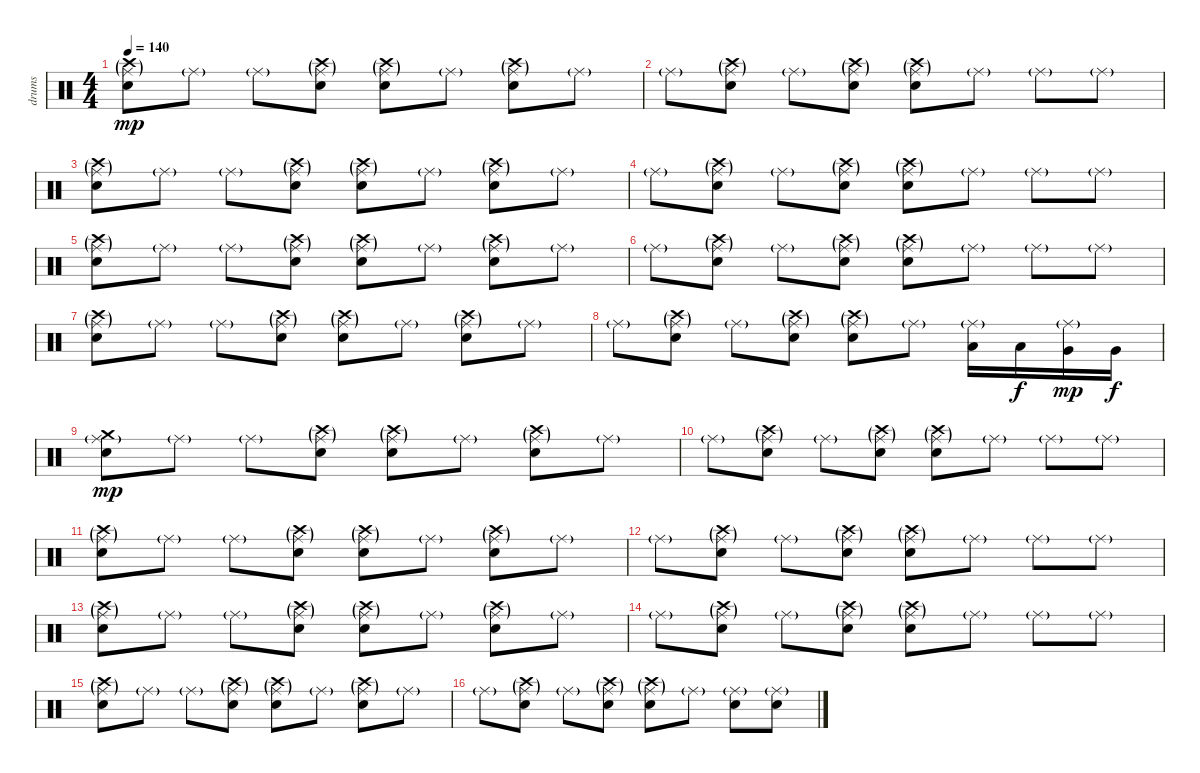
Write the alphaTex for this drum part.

\track ("drums" "drums") {instrument percussion}
\staff {score}
\articulation defaults
\ts (4 4)
\tempo 140
\clef neutral
\ks c
("Electric Snare (hit)" "Ride (middle)"{g} "Crash high (hit)"{g}).8{dy mp} "Ride (middle)"{g}.8 "Ride (middle)"{g}.8 ("Electric Snare (hit)" "Ride (middle)"{g} "Crash high (hit)"{g}).8 ("Electric Snare (hit)" "Ride (middle)"{g} "Crash high (hit)"{g}).8 "Ride (middle)"{g}.8 ("Electric Snare (hit)" "Ride (middle)"{g} "Crash high (hit)"{g}).8 "Ride (middle)"{g}.8 |
"Ride (middle)"{g}.8 ("Electric Snare (hit)" "Ride (middle)"{g} "Crash high (hit)"{g}).8 "Ride (middle)"{g}.8 ("Electric Snare (hit)" "Ride (middle)"{g} "Crash high (hit)"{g}).8 ("Electric Snare (hit)" "Ride (middle)"{g} "Crash high (hit)"{g}).8 "Ride (middle)"{g}.8 "Ride (middle)"{g}.8 "Ride (middle)"{g}.8 |
("Electric Snare (hit)" "Ride (middle)"{g} "Crash high (hit)"{g}).8 "Ride (middle)"{g}.8 "Ride (middle)"{g}.8 ("Electric Snare (hit)" "Ride (middle)"{g} "Crash high (hit)"{g}).8 ("Electric Snare (hit)" "Ride (middle)"{g} "Crash high (hit)"{g}).8 "Ride (middle)"{g}.8 ("Electric Snare (hit)" "Ride (middle)"{g} "Crash high (hit)"{g}).8 "Ride (middle)"{g}.8 |
"Ride (middle)"{g}.8 ("Electric Snare (hit)" "Ride (middle)"{g} "Crash high (hit)"{g}).8 "Ride (middle)"{g}.8 ("Electric Snare (hit)" "Ride (middle)"{g} "Crash high (hit)"{g}).8 ("Electric Snare (hit)" "Ride (middle)"{g} "Crash high (hit)"{g}).8 "Ride (middle)"{g}.8 "Ride (middle)"{g}.8 "Ride (middle)"{g}.8 |
("Electric Snare (hit)" "Ride (middle)"{g} "Crash high (hit)"{g}).8 "Ride (middle)"{g}.8 "Ride (middle)"{g}.8 ("Electric Snare (hit)" "Ride (middle)"{g} "Crash high (hit)"{g}).8 ("Electric Snare (hit)" "Ride (middle)"{g} "Crash high (hit)"{g}).8 "Ride (middle)"{g}.8 ("Electric Snare (hit)" "Ride (middle)"{g} "Crash high (hit)"{g}).8 "Ride (middle)"{g}.8 |
"Ride (middle)"{g}.8 ("Electric Snare (hit)" "Ride (middle)"{g} "Crash high (hit)"{g}).8 "Ride (middle)"{g}.8 ("Electric Snare (hit)" "Ride (middle)"{g} "Crash high (hit)"{g}).8 ("Electric Snare (hit)" "Ride (middle)"{g} "Crash high (hit)"{g}).8 "Ride (middle)"{g}.8 "Ride (middle)"{g}.8 "Ride (middle)"{g}.8 |
("Electric Snare (hit)" "Ride (middle)"{g} "Crash high (hit)"{g}).8 "Ride (middle)"{g}.8 "Ride (middle)"{g}.8 ("Electric Snare (hit)" "Ride (middle)"{g} "Crash high (hit)"{g}).8 ("Electric Snare (hit)" "Ride (middle)"{g} "Crash high (hit)"{g}).8 "Ride (middle)"{g}.8 ("Electric Snare (hit)" "Ride (middle)"{g} "Crash high (hit)"{g}).8 "Ride (middle)"{g}.8 |
"Ride (middle)"{g}.8 ("Electric Snare (hit)" "Ride (middle)"{g} "Crash high (hit)"{g}).8 "Ride (middle)"{g}.8 ("Electric Snare (hit)" "Ride (middle)"{g} "Crash high (hit)"{g}).8 ("Electric Snare (hit)" "Ride (middle)"{g} "Crash high (hit)"{g}).8 "Ride (middle)"{g}.8 ("Low Tom (hit)" "Ride (middle)"{g}).16 "Low Tom (hit)".16{dy f} ("Very Low Tom (hit)" "Ride (middle)"{g}).16{dy mp} "Very Low Tom (hit)".16{dy f} |
("Electric Snare (hit)" "Ride (middle)"{g} "Crash medium (hit)").8{dy mp} "Ride (middle)"{g}.8 "Ride (middle)"{g}.8 ("Electric Snare (hit)" "Ride (middle)"{g} "Crash high (hit)"{g}).8 ("Electric Snare (hit)" "Ride (middle)"{g} "Crash high (hit)"{g}).8 "Ride (middle)"{g}.8 ("Electric Snare (hit)" "Ride (middle)"{g} "Crash high (hit)"{g}).8 "Ride (middle)"{g}.8 |
"Ride (middle)"{g}.8 ("Electric Snare (hit)" "Ride (middle)"{g} "Crash high (hit)"{g}).8 "Ride (middle)"{g}.8 ("Electric Snare (hit)" "Ride (middle)"{g} "Crash high (hit)"{g}).8 ("Electric Snare (hit)" "Ride (middle)"{g} "Crash high (hit)"{g}).8 "Ride (middle)"{g}.8 "Ride (middle)"{g}.8 "Ride (middle)"{g}.8 |
("Electric Snare (hit)" "Ride (middle)"{g} "Crash high (hit)"{g}).8 "Ride (middle)"{g}.8 "Ride (middle)"{g}.8 ("Electric Snare (hit)" "Ride (middle)"{g} "Crash high (hit)"{g}).8 ("Electric Snare (hit)" "Ride (middle)"{g} "Crash high (hit)"{g}).8 "Ride (middle)"{g}.8 ("Electric Snare (hit)" "Ride (middle)"{g} "Crash high (hit)"{g}).8 "Ride (middle)"{g}.8 |
"Ride (middle)"{g}.8 ("Electric Snare (hit)" "Ride (middle)"{g} "Crash high (hit)"{g}).8 "Ride (middle)"{g}.8 ("Electric Snare (hit)" "Ride (middle)"{g} "Crash high (hit)"{g}).8 ("Electric Snare (hit)" "Ride (middle)"{g} "Crash high (hit)"{g}).8 "Ride (middle)"{g}.8 "Ride (middle)"{g}.8 "Ride (middle)"{g}.8 |
("Electric Snare (hit)" "Ride (middle)"{g} "Crash high (hit)"{g}).8 "Ride (middle)"{g}.8 "Ride (middle)"{g}.8 ("Electric Snare (hit)" "Ride (middle)"{g} "Crash high (hit)"{g}).8 ("Electric Snare (hit)" "Ride (middle)"{g} "Crash high (hit)"{g}).8 "Ride (middle)"{g}.8 ("Electric Snare (hit)" "Ride (middle)"{g} "Crash high (hit)"{g}).8 "Ride (middle)"{g}.8 |
"Ride (middle)"{g}.8 ("Electric Snare (hit)" "Ride (middle)"{g} "Crash high (hit)"{g}).8 "Ride (middle)"{g}.8 ("Electric Snare (hit)" "Ride (middle)"{g} "Crash high (hit)"{g}).8 ("Electric Snare (hit)" "Ride (middle)"{g} "Crash high (hit)"{g}).8 "Ride (middle)"{g}.8 "Ride (middle)"{g}.8 "Ride (middle)"{g}.8 |
("Electric Snare (hit)" "Ride (middle)"{g} "Crash high (hit)"{g}).8 "Ride (middle)"{g}.8 "Ride (middle)"{g}.8 ("Electric Snare (hit)" "Ride (middle)"{g} "Crash high (hit)"{g}).8 ("Electric Snare (hit)" "Ride (middle)"{g} "Crash high (hit)"{g}).8 "Ride (middle)"{g}.8 ("Electric Snare (hit)" "Ride (middle)"{g} "Crash high (hit)"{g}).8 "Ride (middle)"{g}.8 |
"Ride (middle)"{g}.8 ("Electric Snare (hit)" "Ride (middle)"{g} "Crash high (hit)"{g}).8 "Ride (middle)"{g}.8 ("Electric Snare (hit)" "Ride (middle)"{g} "Crash high (hit)"{g}).8 ("Electric Snare (hit)" "Ride (middle)"{g} "Crash high (hit)"{g}).8 "Ride (middle)"{g}.8 ("Electric Snare (hit)"{tr (40 16)} "Ride (middle)"{g}).8 ("Electric Snare (hit)" "Ride (middle)"{g}).8
